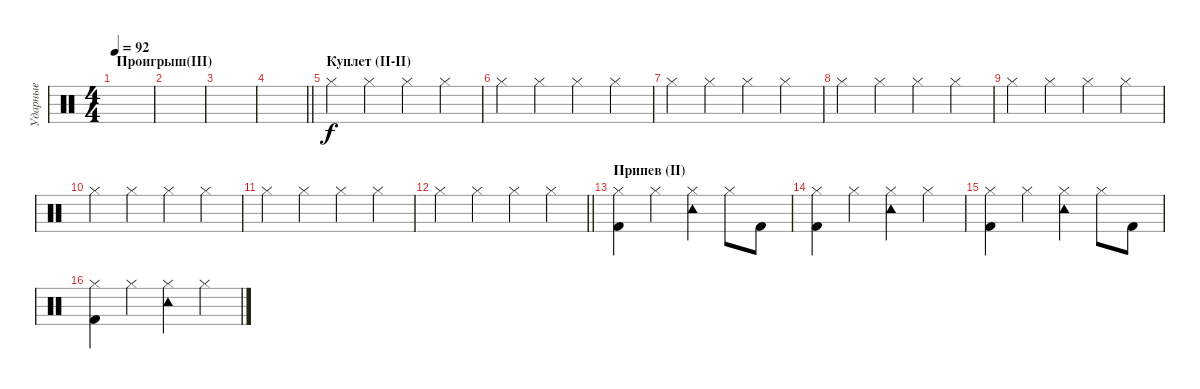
\track ("Ударные" "Ударные") {instrument percussion}
\staff {score}
\articulation defaults
\ts (4 4)
\section ("" "Проигрыш(III)")
\tempo 92
\clef neutral
\ks c
|
|
|
\barLineRight lightlight
|
\section ("" "Куплет (II-II)")
"Hi-Hat (closed)".4 "Hi-Hat (closed)".4 "Hi-Hat (closed)".4 "Hi-Hat (closed)".4 |
"Hi-Hat (closed)".4 "Hi-Hat (closed)".4 "Hi-Hat (closed)".4 "Hi-Hat (closed)".4 |
"Hi-Hat (closed)".4 "Hi-Hat (closed)".4 "Hi-Hat (closed)".4 "Hi-Hat (closed)".4 |
"Hi-Hat (closed)".4 "Hi-Hat (closed)".4 "Hi-Hat (closed)".4 "Hi-Hat (closed)".4 |
"Hi-Hat (closed)".4 "Hi-Hat (closed)".4 "Hi-Hat (closed)".4 "Hi-Hat (closed)".4 |
"Hi-Hat (closed)".4 "Hi-Hat (closed)".4 "Hi-Hat (closed)".4 "Hi-Hat (closed)".4 |
"Hi-Hat (closed)".4 "Hi-Hat (closed)".4 "Hi-Hat (closed)".4 "Hi-Hat (closed)".4 |
\barLineRight lightlight "Hi-Hat (closed)".4 "Hi-Hat (closed)".4 "Hi-Hat (closed)".4 "Hi-Hat (closed)".4
|
\section ("" "Припев (II)")
("Hi-Hat (closed)" "Kick (hit) 2").4 "Hi-Hat (closed)".4 ("Tambourine (hit)" "Hi-Hat (closed)").4 "Hi-Hat (closed)".8 "Kick (hit) 2".8 |
("Hi-Hat (closed)" "Kick (hit) 2").4 "Hi-Hat (closed)".4 ("Tambourine (hit)" "Hi-Hat (closed)").4 "Hi-Hat (closed)".4 |
("Hi-Hat (closed)" "Kick (hit) 2").4 "Hi-Hat (closed)".4 ("Tambourine (hit)" "Hi-Hat (closed)").4 "Hi-Hat (closed)".8 "Kick (hit) 2".8 |
("Hi-Hat (closed)" "Kick (hit) 2").4 "Hi-Hat (closed)".4 ("Tambourine (hit)" "Hi-Hat (closed)").4 "Hi-Hat (closed)".4
